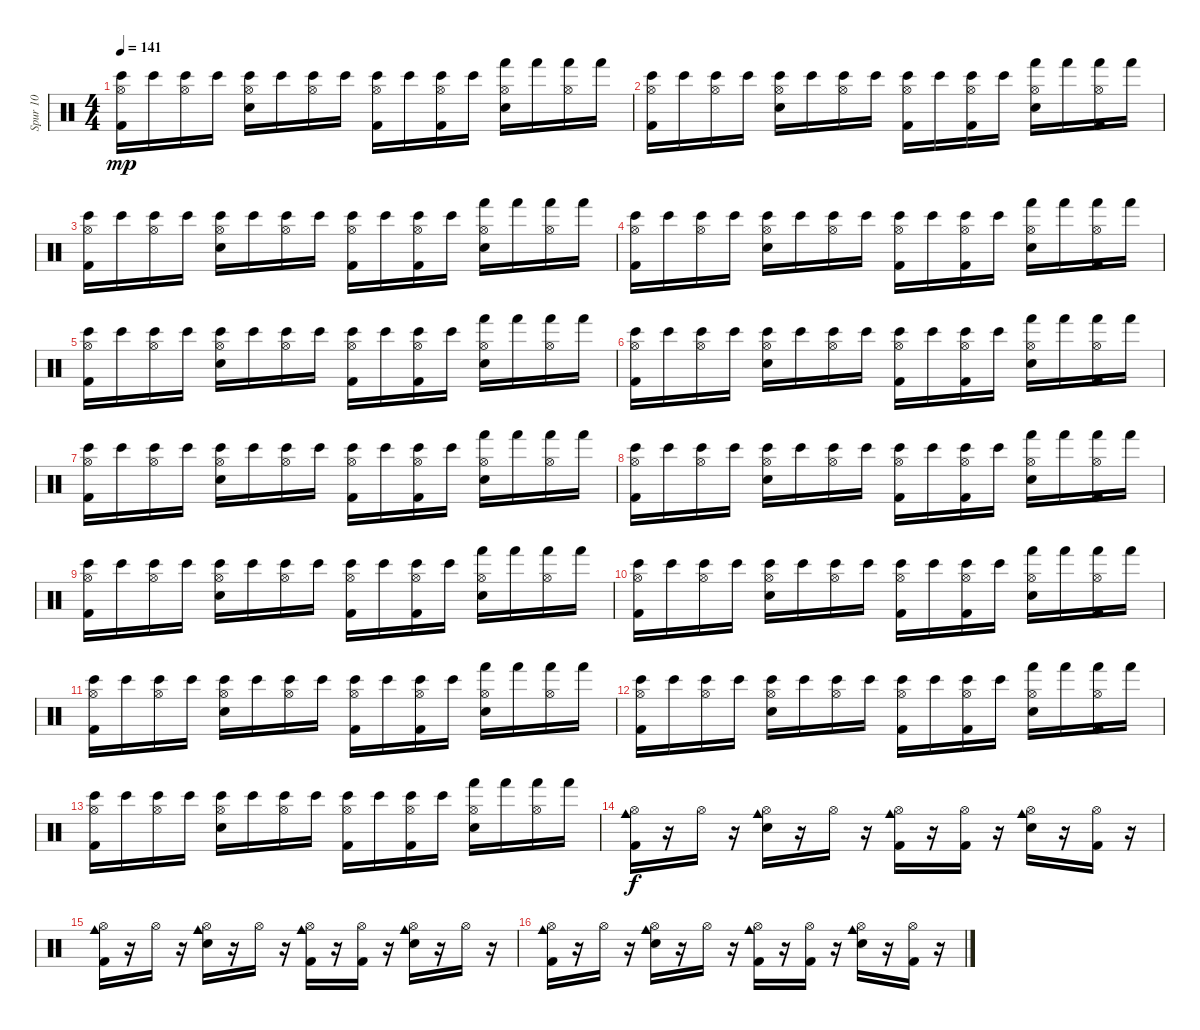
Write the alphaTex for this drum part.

\track ("Spur 10" "Spur 10") {instrument percussion}
\staff {score}
\articulation defaults
\ts (4 4)
\tempo 141
\clef neutral
\ks c
("Bongo High (hit)" "Hi-Hat (open)" "Kick (hit) 2").16{dy mp} "Bongo High (hit)".16 ("Bongo High (hit)" "Hi-Hat (open)").16 "Bongo High (hit)".16 ("Bongo High (hit)" "Hi-Hat (open)" "Snare (hit) 2").16 "Bongo High (hit)".16 ("Bongo High (hit)" "Hi-Hat (open)").16 "Bongo High (hit)".16 ("Bongo High (hit)" "Hi-Hat (open)" "Kick (hit) 2").16 "Bongo High (hit)".16 ("Bongo High (hit)" "Hi-Hat (open)" "Kick (hit) 2").16 "Bongo High (hit)".16 ("Hand (hit)" "Hi-Hat (open)" "Snare (hit) 2").16 "Hand (hit)".16 ("Hand (hit)" "Hi-Hat (open)").16 "Hand (hit)".16 |
("Bongo High (hit)" "Hi-Hat (open)" "Kick (hit) 2").16 "Bongo High (hit)".16 ("Bongo High (hit)" "Hi-Hat (open)").16 "Bongo High (hit)".16 ("Bongo High (hit)" "Hi-Hat (open)" "Snare (hit) 2").16 "Bongo High (hit)".16 ("Bongo High (hit)" "Hi-Hat (open)").16 "Bongo High (hit)".16 ("Bongo High (hit)" "Hi-Hat (open)" "Kick (hit) 2").16 "Bongo High (hit)".16 ("Bongo High (hit)" "Hi-Hat (open)" "Kick (hit) 2").16 "Bongo High (hit)".16 ("Hand (hit)" "Hi-Hat (open)" "Snare (hit) 2").16 "Hand (hit)".16 ("Hand (hit)" "Hi-Hat (open)" "Kick (hit) 2").16 "Hand (hit)".16 |
("Bongo High (hit)" "Hi-Hat (open)" "Kick (hit) 2").16 "Bongo High (hit)".16 ("Bongo High (hit)" "Hi-Hat (open)").16 "Bongo High (hit)".16 ("Bongo High (hit)" "Hi-Hat (open)" "Snare (hit) 2").16 "Bongo High (hit)".16 ("Bongo High (hit)" "Hi-Hat (open)").16 "Bongo High (hit)".16 ("Bongo High (hit)" "Hi-Hat (open)" "Kick (hit) 2").16 "Bongo High (hit)".16 ("Bongo High (hit)" "Hi-Hat (open)" "Kick (hit) 2").16 "Bongo High (hit)".16 ("Hand (hit)" "Hi-Hat (open)" "Snare (hit) 2").16 "Hand (hit)".16 ("Hand (hit)" "Hi-Hat (open)").16 "Hand (hit)".16 |
("Bongo High (hit)" "Kick (hit) 2" "Hi-Hat (open)").16 "Bongo High (hit)".16 ("Bongo High (hit)" "Hi-Hat (open)").16 "Bongo High (hit)".16 ("Bongo High (hit)" "Snare (hit) 2" "Hi-Hat (open)").16 "Bongo High (hit)".16 ("Bongo High (hit)" "Hi-Hat (open)").16 "Bongo High (hit)".16 ("Bongo High (hit)" "Kick (hit) 2" "Hi-Hat (open)").16 "Bongo High (hit)".16 ("Bongo High (hit)" "Kick (hit) 2" "Hi-Hat (open)").16 "Bongo High (hit)".16 ("Hand (hit)" "Snare (hit) 2" "Hi-Hat (open)").16 "Hand (hit)".16 ("Hand (hit)" "Kick (hit) 2" "Hi-Hat (open)").16 "Hand (hit)".16 |
("Bongo High (hit)" "Kick (hit) 2" "Hi-Hat (open)").16 "Bongo High (hit)".16 ("Bongo High (hit)" "Hi-Hat (open)").16 "Bongo High (hit)".16 ("Bongo High (hit)" "Snare (hit) 2" "Hi-Hat (open)").16 "Bongo High (hit)".16 ("Bongo High (hit)" "Hi-Hat (open)").16 "Bongo High (hit)".16 ("Bongo High (hit)" "Kick (hit) 2" "Hi-Hat (open)").16 "Bongo High (hit)".16 ("Bongo High (hit)" "Kick (hit) 2" "Hi-Hat (open)").16 "Bongo High (hit)".16 ("Hand (hit)" "Snare (hit) 2" "Hi-Hat (open)").16 "Hand (hit)".16 ("Hand (hit)" "Hi-Hat (open)").16 "Hand (hit)".16 |
("Bongo High (hit)" "Kick (hit) 2" "Hi-Hat (open)").16 "Bongo High (hit)".16 ("Bongo High (hit)" "Hi-Hat (open)").16 "Bongo High (hit)".16 ("Bongo High (hit)" "Snare (hit) 2" "Hi-Hat (open)").16 "Bongo High (hit)".16 ("Bongo High (hit)" "Hi-Hat (open)").16 "Bongo High (hit)".16 ("Bongo High (hit)" "Kick (hit) 2" "Hi-Hat (open)").16 "Bongo High (hit)".16 ("Bongo High (hit)" "Kick (hit) 2" "Hi-Hat (open)").16 "Bongo High (hit)".16 ("Hand (hit)" "Snare (hit) 2" "Hi-Hat (open)").16 "Hand (hit)".16 ("Hand (hit)" "Kick (hit) 2" "Hi-Hat (open)").16 "Hand (hit)".16 |
("Bongo High (hit)" "Kick (hit) 2" "Hi-Hat (open)").16 "Bongo High (hit)".16 ("Bongo High (hit)" "Hi-Hat (open)").16 "Bongo High (hit)".16 ("Bongo High (hit)" "Snare (hit) 2" "Hi-Hat (open)").16 "Bongo High (hit)".16 ("Bongo High (hit)" "Hi-Hat (open)").16 "Bongo High (hit)".16 ("Bongo High (hit)" "Kick (hit) 2" "Hi-Hat (open)").16 "Bongo High (hit)".16 ("Bongo High (hit)" "Kick (hit) 2" "Hi-Hat (open)").16 "Bongo High (hit)".16 ("Hand (hit)" "Snare (hit) 2" "Hi-Hat (open)").16 "Hand (hit)".16 ("Hand (hit)" "Hi-Hat (open)").16 "Hand (hit)".16 |
("Bongo High (hit)" "Kick (hit) 2" "Hi-Hat (open)").16 "Bongo High (hit)".16 ("Bongo High (hit)" "Hi-Hat (open)").16 "Bongo High (hit)".16 ("Bongo High (hit)" "Snare (hit) 2" "Hi-Hat (open)").16 "Bongo High (hit)".16 ("Bongo High (hit)" "Hi-Hat (open)").16 "Bongo High (hit)".16 ("Bongo High (hit)" "Kick (hit) 2" "Hi-Hat (open)").16 "Bongo High (hit)".16 ("Bongo High (hit)" "Kick (hit) 2" "Hi-Hat (open)").16 "Bongo High (hit)".16 ("Hand (hit)" "Snare (hit) 2" "Hi-Hat (open)").16 "Hand (hit)".16 ("Hand (hit)" "Kick (hit) 2" "Hi-Hat (open)").16 "Hand (hit)".16 |
("Bongo High (hit)" "Kick (hit) 2" "Hi-Hat (open)").16 "Bongo High (hit)".16 ("Bongo High (hit)" "Hi-Hat (open)").16 "Bongo High (hit)".16 ("Bongo High (hit)" "Snare (hit) 2" "Hi-Hat (open)").16 "Bongo High (hit)".16 ("Bongo High (hit)" "Hi-Hat (open)").16 "Bongo High (hit)".16 ("Bongo High (hit)" "Kick (hit) 2" "Hi-Hat (open)").16 "Bongo High (hit)".16 ("Bongo High (hit)" "Kick (hit) 2" "Hi-Hat (open)").16 "Bongo High (hit)".16 ("Hand (hit)" "Snare (hit) 2" "Hi-Hat (open)").16 "Hand (hit)".16 ("Hand (hit)" "Hi-Hat (open)").16 "Hand (hit)".16 |
("Bongo High (hit)" "Kick (hit) 2" "Hi-Hat (open)").16 "Bongo High (hit)".16 ("Bongo High (hit)" "Hi-Hat (open)").16 "Bongo High (hit)".16 ("Bongo High (hit)" "Snare (hit) 2" "Hi-Hat (open)").16 "Bongo High (hit)".16 ("Bongo High (hit)" "Hi-Hat (open)").16 "Bongo High (hit)".16 ("Bongo High (hit)" "Kick (hit) 2" "Hi-Hat (open)").16 "Bongo High (hit)".16 ("Bongo High (hit)" "Kick (hit) 2" "Hi-Hat (open)").16 "Bongo High (hit)".16 ("Hand (hit)" "Snare (hit) 2" "Hi-Hat (open)").16 "Hand (hit)".16 ("Hand (hit)" "Kick (hit) 2" "Hi-Hat (open)").16 "Hand (hit)".16 |
("Bongo High (hit)" "Kick (hit) 2" "Hi-Hat (open)").16 "Bongo High (hit)".16 ("Bongo High (hit)" "Hi-Hat (open)").16 "Bongo High (hit)".16 ("Bongo High (hit)" "Snare (hit) 2" "Hi-Hat (open)").16 "Bongo High (hit)".16 ("Bongo High (hit)" "Hi-Hat (open)").16 "Bongo High (hit)".16 ("Bongo High (hit)" "Kick (hit) 2" "Hi-Hat (open)").16 "Bongo High (hit)".16 ("Bongo High (hit)" "Kick (hit) 2" "Hi-Hat (open)").16 "Bongo High (hit)".16 ("Hand (hit)" "Snare (hit) 2" "Hi-Hat (open)").16 "Hand (hit)".16 ("Hand (hit)" "Hi-Hat (open)").16 "Hand (hit)".16 |
("Bongo High (hit)" "Kick (hit) 2" "Hi-Hat (open)").16 "Bongo High (hit)".16 ("Bongo High (hit)" "Hi-Hat (open)").16 "Bongo High (hit)".16 ("Bongo High (hit)" "Snare (hit) 2" "Hi-Hat (open)").16 "Bongo High (hit)".16 ("Bongo High (hit)" "Hi-Hat (open)").16 "Bongo High (hit)".16 ("Bongo High (hit)" "Kick (hit) 2" "Hi-Hat (open)").16 "Bongo High (hit)".16 ("Bongo High (hit)" "Kick (hit) 2" "Hi-Hat (open)").16 "Bongo High (hit)".16 ("Hand (hit)" "Snare (hit) 2" "Hi-Hat (open)").16 "Hand (hit)".16 ("Hand (hit)" "Kick (hit) 2" "Hi-Hat (open)").16 "Hand (hit)".16 |
("Bongo High (hit)" "Kick (hit) 2" "Hi-Hat (open)").16 "Bongo High (hit)".16 ("Bongo High (hit)" "Hi-Hat (open)").16 "Bongo High (hit)".16 ("Bongo High (hit)" "Snare (hit) 2" "Hi-Hat (open)").16 "Bongo High (hit)".16 ("Bongo High (hit)" "Hi-Hat (open)").16 "Bongo High (hit)".16 ("Bongo High (hit)" "Kick (hit) 2" "Hi-Hat (open)").16 "Bongo High (hit)".16 ("Bongo High (hit)" "Kick (hit) 2" "Hi-Hat (open)").16 "Bongo High (hit)".16 ("Hand (hit)" "Snare (hit) 2" "Hi-Hat (open)").16 "Hand (hit)".16 ("Hand (hit)" "Hi-Hat (open)").16 "Hand (hit)".16 |
("Cowbell medium (hit)" "Kick (hit) 2" "Hi-Hat (open)").16{dy f} r.16 "Hi-Hat (open)".16 r.16 ("Cowbell medium (hit)" "Snare (hit) 2" "Hi-Hat (open)").16 r.16 "Hi-Hat (open)".16 r.16 ("Cowbell medium (hit)" "Kick (hit) 2" "Hi-Hat (open)").16 r.16 ("Kick (hit) 2" "Hi-Hat (open)").16 r.16 ("Cowbell medium (hit)" "Snare (hit) 2" "Hi-Hat (open)").16 r.16 ("Kick (hit) 2" "Hi-Hat (open)").16 r.16 |
("Cowbell medium (hit)" "Kick (hit) 2" "Hi-Hat (open)").16 r.16 "Hi-Hat (open)".16 r.16 ("Cowbell medium (hit)" "Snare (hit) 2" "Hi-Hat (open)").16 r.16 "Hi-Hat (open)".16 r.16 ("Cowbell medium (hit)" "Kick (hit) 2" "Hi-Hat (open)").16 r.16 ("Kick (hit) 2" "Hi-Hat (open)").16 r.16 ("Cowbell medium (hit)" "Snare (hit) 2" "Hi-Hat (open)").16 r.16 "Hi-Hat (open)".16 r.16 |
("Cowbell medium (hit)" "Hi-Hat (open)" "Kick (hit) 2").16 r.16 "Hi-Hat (open)".16 r.16 ("Cowbell medium (hit)" "Hi-Hat (open)" "Snare (hit) 2").16 r.16 "Hi-Hat (open)".16 r.16 ("Cowbell medium (hit)" "Hi-Hat (open)" "Kick (hit) 2").16 r.16 ("Hi-Hat (open)" "Kick (hit) 2").16 r.16 ("Cowbell medium (hit)" "Hi-Hat (open)" "Snare (hit) 2").16 r.16 ("Hi-Hat (open)" "Kick (hit) 2").16 r.16
